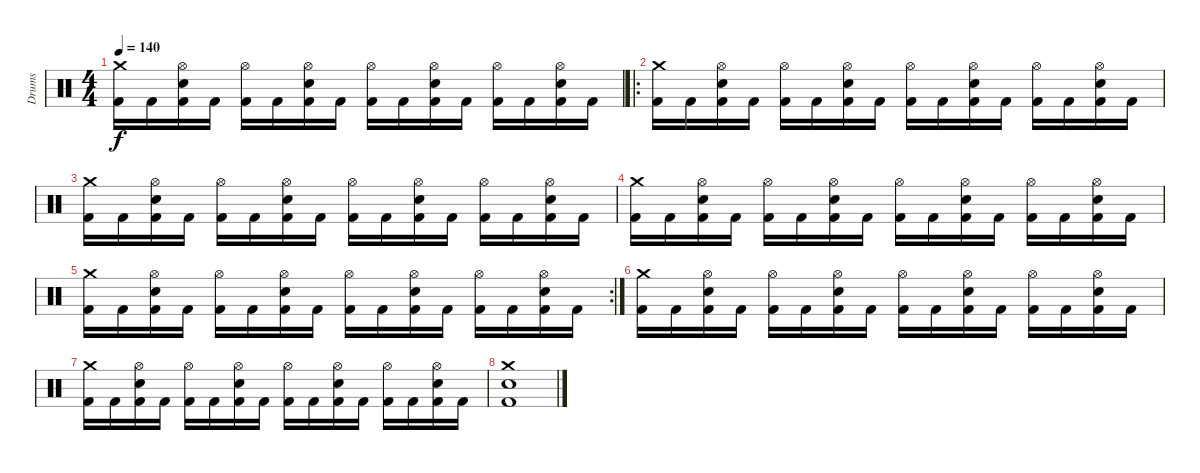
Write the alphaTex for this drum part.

\track ("Drums" "Drums") {instrument percussion}
\staff {score}
\articulation defaults
\ts (4 4)
\tempo 140
\clef neutral
\ks c
("Crash medium (hit)" "Kick (hit) 2").16{dy f} "Kick (hit) 2".16 ("Hi-Hat (open)" "Electric Snare (hit)" "Kick (hit) 2").16 "Kick (hit) 2".16 ("Hi-Hat (open)" "Kick (hit) 2").16 "Kick (hit) 2".16 ("Hi-Hat (open)" "Electric Snare (hit)" "Kick (hit) 2").16 "Kick (hit) 2".16 ("Hi-Hat (open)" "Kick (hit) 2").16 "Kick (hit) 2".16 ("Hi-Hat (open)" "Electric Snare (hit)" "Kick (hit) 2").16 "Kick (hit) 2".16 ("Hi-Hat (open)" "Kick (hit) 2").16 "Kick (hit) 2".16 ("Hi-Hat (open)" "Electric Snare (hit)" "Kick (hit) 2").16 "Kick (hit) 2".16 |
\ro
("Crash medium (hit)" "Kick (hit) 2").16 "Kick (hit) 2".16 ("Hi-Hat (open)" "Electric Snare (hit)" "Kick (hit) 2").16 "Kick (hit) 2".16 ("Hi-Hat (open)" "Kick (hit) 2").16 "Kick (hit) 2".16 ("Hi-Hat (open)" "Electric Snare (hit)" "Kick (hit) 2").16 "Kick (hit) 2".16 ("Hi-Hat (open)" "Kick (hit) 2").16 "Kick (hit) 2".16 ("Hi-Hat (open)" "Electric Snare (hit)" "Kick (hit) 2").16 "Kick (hit) 2".16 ("Hi-Hat (open)" "Kick (hit) 2").16 "Kick (hit) 2".16 ("Hi-Hat (open)" "Electric Snare (hit)" "Kick (hit) 2").16 "Kick (hit) 2".16 |
("Crash medium (hit)" "Kick (hit) 2").16 "Kick (hit) 2".16 ("Hi-Hat (open)" "Electric Snare (hit)" "Kick (hit) 2").16 "Kick (hit) 2".16 ("Hi-Hat (open)" "Kick (hit) 2").16 "Kick (hit) 2".16 ("Hi-Hat (open)" "Electric Snare (hit)" "Kick (hit) 2").16 "Kick (hit) 2".16 ("Hi-Hat (open)" "Kick (hit) 2").16 "Kick (hit) 2".16 ("Hi-Hat (open)" "Electric Snare (hit)" "Kick (hit) 2").16 "Kick (hit) 2".16 ("Hi-Hat (open)" "Kick (hit) 2").16 "Kick (hit) 2".16 ("Hi-Hat (open)" "Electric Snare (hit)" "Kick (hit) 2").16 "Kick (hit) 2".16 |
("Crash medium (hit)" "Kick (hit) 2").16 "Kick (hit) 2".16 ("Hi-Hat (open)" "Electric Snare (hit)" "Kick (hit) 2").16 "Kick (hit) 2".16 ("Hi-Hat (open)" "Kick (hit) 2").16 "Kick (hit) 2".16 ("Hi-Hat (open)" "Electric Snare (hit)" "Kick (hit) 2").16 "Kick (hit) 2".16 ("Hi-Hat (open)" "Kick (hit) 2").16 "Kick (hit) 2".16 ("Hi-Hat (open)" "Electric Snare (hit)" "Kick (hit) 2").16 "Kick (hit) 2".16 ("Hi-Hat (open)" "Kick (hit) 2").16 "Kick (hit) 2".16 ("Hi-Hat (open)" "Electric Snare (hit)" "Kick (hit) 2").16 "Kick (hit) 2".16 |
\rc 2
("Crash medium (hit)" "Kick (hit) 2").16 "Kick (hit) 2".16 ("Hi-Hat (open)" "Electric Snare (hit)" "Kick (hit) 2").16 "Kick (hit) 2".16 ("Hi-Hat (open)" "Kick (hit) 2").16 "Kick (hit) 2".16 ("Hi-Hat (open)" "Electric Snare (hit)" "Kick (hit) 2").16 "Kick (hit) 2".16 ("Hi-Hat (open)" "Kick (hit) 2").16 "Kick (hit) 2".16 ("Hi-Hat (open)" "Electric Snare (hit)" "Kick (hit) 2").16 "Kick (hit) 2".16 ("Hi-Hat (open)" "Kick (hit) 2").16 "Kick (hit) 2".16 ("Hi-Hat (open)" "Electric Snare (hit)" "Kick (hit) 2").16 "Kick (hit) 2".16 |
("Crash medium (hit)" "Kick (hit) 2").16 "Kick (hit) 2".16 ("Hi-Hat (open)" "Electric Snare (hit)" "Kick (hit) 2").16 "Kick (hit) 2".16 ("Hi-Hat (open)" "Kick (hit) 2").16 "Kick (hit) 2".16 ("Hi-Hat (open)" "Electric Snare (hit)" "Kick (hit) 2").16 "Kick (hit) 2".16 ("Hi-Hat (open)" "Kick (hit) 2").16 "Kick (hit) 2".16 ("Hi-Hat (open)" "Electric Snare (hit)" "Kick (hit) 2").16 "Kick (hit) 2".16 ("Hi-Hat (open)" "Kick (hit) 2").16 "Kick (hit) 2".16 ("Hi-Hat (open)" "Electric Snare (hit)" "Kick (hit) 2").16 "Kick (hit) 2".16 |
("Crash medium (hit)" "Kick (hit) 2").16 "Kick (hit) 2".16 ("Hi-Hat (open)" "Electric Snare (hit)" "Kick (hit) 2").16 "Kick (hit) 2".16 ("Hi-Hat (open)" "Kick (hit) 2").16 "Kick (hit) 2".16 ("Hi-Hat (open)" "Electric Snare (hit)" "Kick (hit) 2").16 "Kick (hit) 2".16 ("Hi-Hat (open)" "Kick (hit) 2").16 "Kick (hit) 2".16 ("Hi-Hat (open)" "Electric Snare (hit)" "Kick (hit) 2").16 "Kick (hit) 2".16 ("Hi-Hat (open)" "Kick (hit) 2").16 "Kick (hit) 2".16 ("Hi-Hat (open)" "Electric Snare (hit)" "Kick (hit) 2").16 "Kick (hit) 2".16 |
("Crash medium (hit)" "Electric Snare (hit)" "Kick (hit) 2").1
